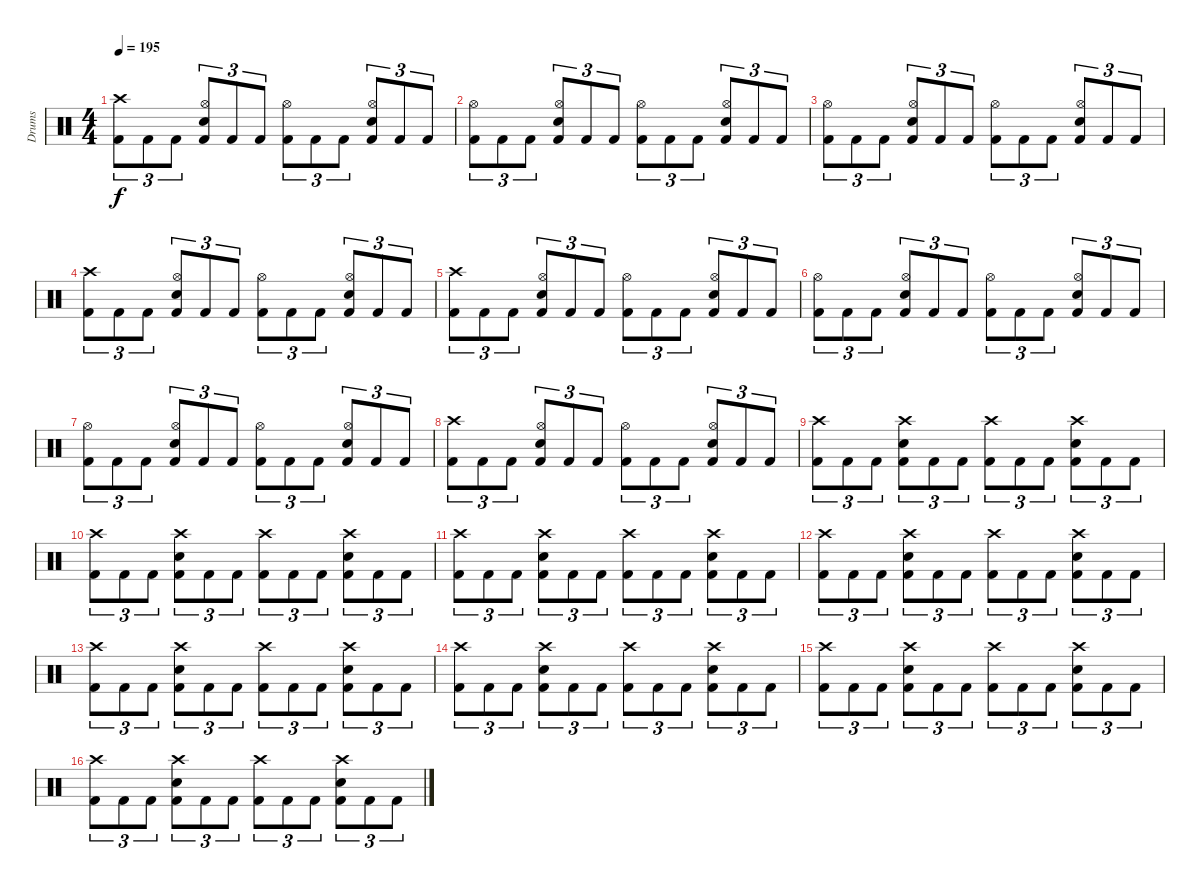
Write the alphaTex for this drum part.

\track ("Drums" "Drums") {instrument percussion}
\staff {score}
\articulation defaults
\ts (4 4)
\tempo 195
\clef neutral
\ks c
("Crash high (hit)" "Kick (hit) 2").8{tu (3 2) dy f} "Kick (hit) 2".8{tu (3 2)} "Kick (hit) 2".8{tu (3 2)} ("Hi-Hat (open)" "Snare (hit) 2" "Kick (hit) 2").8{tu (3 2)} "Kick (hit) 2".8{tu (3 2)} "Kick (hit) 2".8{tu (3 2)} ("Hi-Hat (open)" "Kick (hit) 2").8{tu (3 2)} "Kick (hit) 2".8{tu (3 2)} "Kick (hit) 2".8{tu (3 2)} ("Hi-Hat (open)" "Snare (hit) 2" "Kick (hit) 2").8{tu (3 2)} "Kick (hit) 2".8{tu (3 2)} "Kick (hit) 2".8{tu (3 2)} |
("Hi-Hat (open)" "Kick (hit) 2").8{tu (3 2)} "Kick (hit) 2".8{tu (3 2)} "Kick (hit) 2".8{tu (3 2)} ("Hi-Hat (open)" "Snare (hit) 2" "Kick (hit) 2").8{tu (3 2)} "Kick (hit) 2".8{tu (3 2)} "Kick (hit) 2".8{tu (3 2)} ("Hi-Hat (open)" "Kick (hit) 2").8{tu (3 2)} "Kick (hit) 2".8{tu (3 2)} "Kick (hit) 2".8{tu (3 2)} ("Hi-Hat (open)" "Snare (hit) 2" "Kick (hit) 2").8{tu (3 2)} "Kick (hit) 2".8{tu (3 2)} "Kick (hit) 2".8{tu (3 2)} |
("Hi-Hat (open)" "Kick (hit) 2").8{tu (3 2)} "Kick (hit) 2".8{tu (3 2)} "Kick (hit) 2".8{tu (3 2)} ("Hi-Hat (open)" "Snare (hit) 2" "Kick (hit) 2").8{tu (3 2)} "Kick (hit) 2".8{tu (3 2)} "Kick (hit) 2".8{tu (3 2)} ("Hi-Hat (open)" "Kick (hit) 2").8{tu (3 2)} "Kick (hit) 2".8{tu (3 2)} "Kick (hit) 2".8{tu (3 2)} ("Hi-Hat (open)" "Snare (hit) 2" "Kick (hit) 2").8{tu (3 2)} "Kick (hit) 2".8{tu (3 2)} "Kick (hit) 2".8{tu (3 2)} |
("Crash high (hit)" "Kick (hit) 2").8{tu (3 2)} "Kick (hit) 2".8{tu (3 2)} "Kick (hit) 2".8{tu (3 2)} ("Hi-Hat (open)" "Snare (hit) 2" "Kick (hit) 2").8{tu (3 2)} "Kick (hit) 2".8{tu (3 2)} "Kick (hit) 2".8{tu (3 2)} ("Hi-Hat (open)" "Kick (hit) 2").8{tu (3 2)} "Kick (hit) 2".8{tu (3 2)} "Kick (hit) 2".8{tu (3 2)} ("Hi-Hat (open)" "Snare (hit) 2" "Kick (hit) 2").8{tu (3 2)} "Kick (hit) 2".8{tu (3 2)} "Kick (hit) 2".8{tu (3 2)} |
("Crash high (hit)" "Kick (hit) 2").8{tu (3 2)} "Kick (hit) 2".8{tu (3 2)} "Kick (hit) 2".8{tu (3 2)} ("Hi-Hat (open)" "Snare (hit) 2" "Kick (hit) 2").8{tu (3 2)} "Kick (hit) 2".8{tu (3 2)} "Kick (hit) 2".8{tu (3 2)} ("Hi-Hat (open)" "Kick (hit) 2").8{tu (3 2)} "Kick (hit) 2".8{tu (3 2)} "Kick (hit) 2".8{tu (3 2)} ("Hi-Hat (open)" "Snare (hit) 2" "Kick (hit) 2").8{tu (3 2)} "Kick (hit) 2".8{tu (3 2)} "Kick (hit) 2".8{tu (3 2)} |
("Hi-Hat (open)" "Kick (hit) 2").8{tu (3 2)} "Kick (hit) 2".8{tu (3 2)} "Kick (hit) 2".8{tu (3 2)} ("Hi-Hat (open)" "Snare (hit) 2" "Kick (hit) 2").8{tu (3 2)} "Kick (hit) 2".8{tu (3 2)} "Kick (hit) 2".8{tu (3 2)} ("Hi-Hat (open)" "Kick (hit) 2").8{tu (3 2)} "Kick (hit) 2".8{tu (3 2)} "Kick (hit) 2".8{tu (3 2)} ("Hi-Hat (open)" "Snare (hit) 2" "Kick (hit) 2").8{tu (3 2)} "Kick (hit) 2".8{tu (3 2)} "Kick (hit) 2".8{tu (3 2)} |
("Hi-Hat (open)" "Kick (hit) 2").8{tu (3 2)} "Kick (hit) 2".8{tu (3 2)} "Kick (hit) 2".8{tu (3 2)} ("Hi-Hat (open)" "Snare (hit) 2" "Kick (hit) 2").8{tu (3 2)} "Kick (hit) 2".8{tu (3 2)} "Kick (hit) 2".8{tu (3 2)} ("Hi-Hat (open)" "Kick (hit) 2").8{tu (3 2)} "Kick (hit) 2".8{tu (3 2)} "Kick (hit) 2".8{tu (3 2)} ("Hi-Hat (open)" "Snare (hit) 2" "Kick (hit) 2").8{tu (3 2)} "Kick (hit) 2".8{tu (3 2)} "Kick (hit) 2".8{tu (3 2)} |
("Crash high (hit)" "Kick (hit) 2").8{tu (3 2)} "Kick (hit) 2".8{tu (3 2)} "Kick (hit) 2".8{tu (3 2)} ("Hi-Hat (open)" "Snare (hit) 2" "Kick (hit) 2").8{tu (3 2)} "Kick (hit) 2".8{tu (3 2)} "Kick (hit) 2".8{tu (3 2)} ("Hi-Hat (open)" "Kick (hit) 2").8{tu (3 2)} "Kick (hit) 2".8{tu (3 2)} "Kick (hit) 2".8{tu (3 2)} ("Hi-Hat (open)" "Snare (hit) 2" "Kick (hit) 2").8{tu (3 2)} "Kick (hit) 2".8{tu (3 2)} "Kick (hit) 2".8{tu (3 2)} |
("Crash high (hit)" "Kick (hit) 2").8{tu (3 2)} "Kick (hit) 2".8{tu (3 2)} "Kick (hit) 2".8{tu (3 2)} ("Crash high (hit)" "Snare (hit) 2" "Kick (hit) 2").8{tu (3 2)} "Kick (hit) 2".8{tu (3 2)} "Kick (hit) 2".8{tu (3 2)} ("Crash high (hit)" "Kick (hit) 2").8{tu (3 2)} "Kick (hit) 2".8{tu (3 2)} "Kick (hit) 2".8{tu (3 2)} ("Crash high (hit)" "Snare (hit) 2" "Kick (hit) 2").8{tu (3 2)} "Kick (hit) 2".8{tu (3 2)} "Kick (hit) 2".8{tu (3 2)} |
("Crash high (hit)" "Kick (hit) 2").8{tu (3 2)} "Kick (hit) 2".8{tu (3 2)} "Kick (hit) 2".8{tu (3 2)} ("Crash high (hit)" "Snare (hit) 2" "Kick (hit) 2").8{tu (3 2)} "Kick (hit) 2".8{tu (3 2)} "Kick (hit) 2".8{tu (3 2)} ("Crash high (hit)" "Kick (hit) 2").8{tu (3 2)} "Kick (hit) 2".8{tu (3 2)} "Kick (hit) 2".8{tu (3 2)} ("Crash high (hit)" "Snare (hit) 2" "Kick (hit) 2").8{tu (3 2)} "Kick (hit) 2".8{tu (3 2)} "Kick (hit) 2".8{tu (3 2)} |
("Crash high (hit)" "Kick (hit) 2").8{tu (3 2)} "Kick (hit) 2".8{tu (3 2)} "Kick (hit) 2".8{tu (3 2)} ("Crash high (hit)" "Snare (hit) 2" "Kick (hit) 2").8{tu (3 2)} "Kick (hit) 2".8{tu (3 2)} "Kick (hit) 2".8{tu (3 2)} ("Crash high (hit)" "Kick (hit) 2").8{tu (3 2)} "Kick (hit) 2".8{tu (3 2)} "Kick (hit) 2".8{tu (3 2)} ("Crash high (hit)" "Snare (hit) 2" "Kick (hit) 2").8{tu (3 2)} "Kick (hit) 2".8{tu (3 2)} "Kick (hit) 2".8{tu (3 2)} |
("Crash high (hit)" "Kick (hit) 2").8{tu (3 2)} "Kick (hit) 2".8{tu (3 2)} "Kick (hit) 2".8{tu (3 2)} ("Crash high (hit)" "Snare (hit) 2" "Kick (hit) 2").8{tu (3 2)} "Kick (hit) 2".8{tu (3 2)} "Kick (hit) 2".8{tu (3 2)} ("Crash high (hit)" "Kick (hit) 2").8{tu (3 2)} "Kick (hit) 2".8{tu (3 2)} "Kick (hit) 2".8{tu (3 2)} ("Crash high (hit)" "Snare (hit) 2" "Kick (hit) 2").8{tu (3 2)} "Kick (hit) 2".8{tu (3 2)} "Kick (hit) 2".8{tu (3 2)} |
("Crash high (hit)" "Kick (hit) 2").8{tu (3 2)} "Kick (hit) 2".8{tu (3 2)} "Kick (hit) 2".8{tu (3 2)} ("Crash high (hit)" "Snare (hit) 2" "Kick (hit) 2").8{tu (3 2)} "Kick (hit) 2".8{tu (3 2)} "Kick (hit) 2".8{tu (3 2)} ("Crash high (hit)" "Kick (hit) 2").8{tu (3 2)} "Kick (hit) 2".8{tu (3 2)} "Kick (hit) 2".8{tu (3 2)} ("Crash high (hit)" "Snare (hit) 2" "Kick (hit) 2").8{tu (3 2)} "Kick (hit) 2".8{tu (3 2)} "Kick (hit) 2".8{tu (3 2)} |
("Crash high (hit)" "Kick (hit) 2").8{tu (3 2)} "Kick (hit) 2".8{tu (3 2)} "Kick (hit) 2".8{tu (3 2)} ("Crash high (hit)" "Snare (hit) 2" "Kick (hit) 2").8{tu (3 2)} "Kick (hit) 2".8{tu (3 2)} "Kick (hit) 2".8{tu (3 2)} ("Crash high (hit)" "Kick (hit) 2").8{tu (3 2)} "Kick (hit) 2".8{tu (3 2)} "Kick (hit) 2".8{tu (3 2)} ("Crash high (hit)" "Snare (hit) 2" "Kick (hit) 2").8{tu (3 2)} "Kick (hit) 2".8{tu (3 2)} "Kick (hit) 2".8{tu (3 2)} |
("Crash high (hit)" "Kick (hit) 2").8{tu (3 2)} "Kick (hit) 2".8{tu (3 2)} "Kick (hit) 2".8{tu (3 2)} ("Crash high (hit)" "Snare (hit) 2" "Kick (hit) 2").8{tu (3 2)} "Kick (hit) 2".8{tu (3 2)} "Kick (hit) 2".8{tu (3 2)} ("Crash high (hit)" "Kick (hit) 2").8{tu (3 2)} "Kick (hit) 2".8{tu (3 2)} "Kick (hit) 2".8{tu (3 2)} ("Crash high (hit)" "Snare (hit) 2" "Kick (hit) 2").8{tu (3 2)} "Kick (hit) 2".8{tu (3 2)} "Kick (hit) 2".8{tu (3 2)} |
("Crash high (hit)" "Kick (hit) 2").8{tu (3 2)} "Kick (hit) 2".8{tu (3 2)} "Kick (hit) 2".8{tu (3 2)} ("Crash high (hit)" "Snare (hit) 2" "Kick (hit) 2").8{tu (3 2)} "Kick (hit) 2".8{tu (3 2)} "Kick (hit) 2".8{tu (3 2)} ("Crash high (hit)" "Kick (hit) 2").8{tu (3 2)} "Kick (hit) 2".8{tu (3 2)} "Kick (hit) 2".8{tu (3 2)} ("Crash high (hit)" "Snare (hit) 2" "Kick (hit) 2").8{tu (3 2)} "Kick (hit) 2".8{tu (3 2)} "Kick (hit) 2".8{tu (3 2)}
